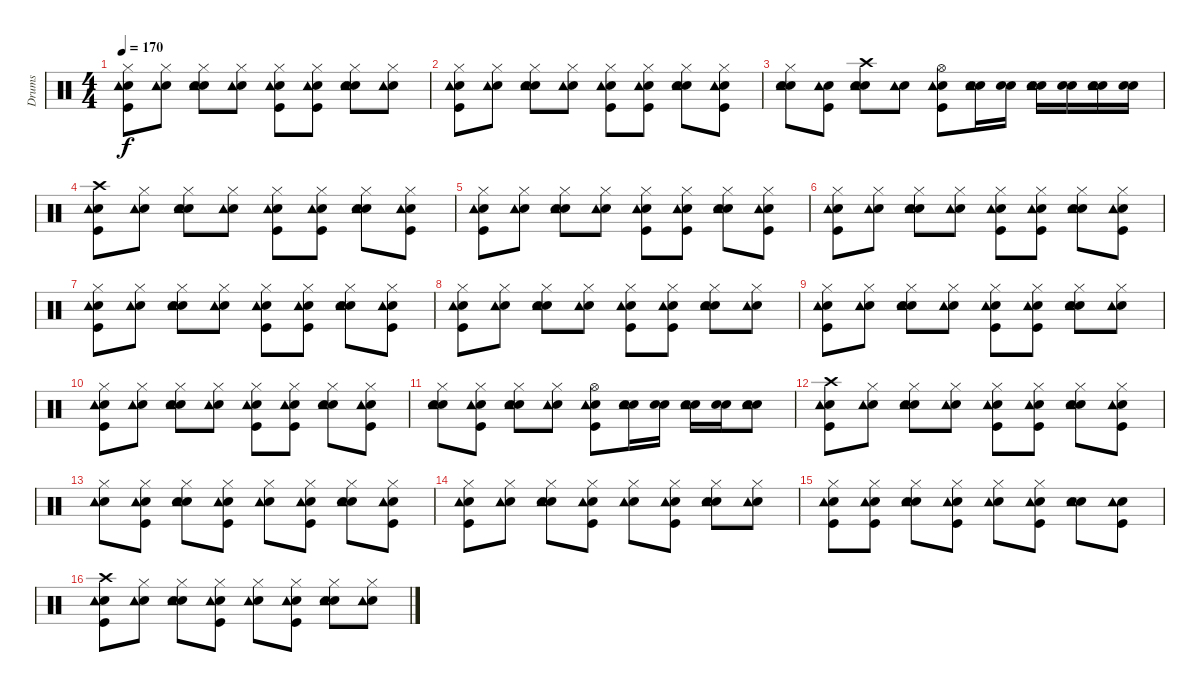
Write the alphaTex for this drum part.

\track ("Drums" "Drums") {instrument percussion}
\staff {score}
\articulation defaults
\ts (4 4)
\tempo 170
\clef neutral
\ks c
("Snare (hit)" "Kick (hit)" "Tambourine (hit)" "Hi-Hat (closed)").8{dy f} ("Snare (hit)" "Tambourine (hit)" "Hi-Hat (closed)").8 ("Snare (hit)" "Tambourine (hit)" "Electric Snare (hit)" "Hi-Hat (closed)").8 ("Snare (hit)" "Tambourine (hit)" "Hi-Hat (closed)").8 ("Snare (hit)" "Kick (hit)" "Tambourine (hit)" "Hi-Hat (closed)").8 ("Snare (hit)" "Kick (hit)" "Tambourine (hit)" "Hi-Hat (closed)").8 ("Snare (hit)" "Tambourine (hit)" "Electric Snare (hit)" "Hi-Hat (closed)").8 ("Snare (hit)" "Tambourine (hit)" "Hi-Hat (closed)").8 |
("Snare (hit)" "Kick (hit)" "Tambourine (hit)" "Hi-Hat (closed)").8 ("Snare (hit)" "Tambourine (hit)" "Hi-Hat (closed)").8 ("Snare (hit)" "Tambourine (hit)" "Electric Snare (hit)" "Hi-Hat (closed)").8 ("Snare (hit)" "Tambourine (hit)" "Hi-Hat (closed)").8 ("Snare (hit)" "Kick (hit)" "Tambourine (hit)" "Hi-Hat (closed)").8 ("Snare (hit)" "Kick (hit)" "Tambourine (hit)" "Hi-Hat (closed)").8 ("Snare (hit)" "Tambourine (hit)" "Electric Snare (hit)" "Hi-Hat (closed)").8 ("Snare (hit)" "Kick (hit)" "Tambourine (hit)" "Hi-Hat (closed)").8 |
("Snare (hit)" "Tambourine (hit)" "Electric Snare (hit)" "Hi-Hat (closed)").8 ("Snare (hit)" "Kick (hit)" "Tambourine (hit)").8 ("Snare (hit)" "Tambourine (hit)" "Electric Snare (hit)" "Crash high (hit)").8 ("Snare (hit)" "Tambourine (hit)").8 ("Snare (hit)" "Kick (hit)" "Tambourine (hit)" "Hi-Hat (open)").8 ("Snare (hit)" "Tambourine (hit)" "Electric Snare (hit)").16 ("Snare (hit)" "Electric Snare (hit)").16 ("Snare (hit)" "Tambourine (hit)" "Electric Snare (hit)").16 ("Snare (hit)" "Electric Snare (hit)").16 ("Snare (hit)" "Tambourine (hit)" "Electric Snare (hit)").16 ("Snare (hit)" "Electric Snare (hit)").16 |
("Snare (hit)" "Kick (hit)" "Tambourine (hit)" "Crash high (hit)").8 ("Snare (hit)" "Tambourine (hit)" "Hi-Hat (closed)").8 ("Snare (hit)" "Tambourine (hit)" "Electric Snare (hit)" "Hi-Hat (closed)").8 ("Snare (hit)" "Tambourine (hit)" "Hi-Hat (closed)").8 ("Snare (hit)" "Kick (hit)" "Tambourine (hit)" "Hi-Hat (closed)").8 ("Snare (hit)" "Kick (hit)" "Tambourine (hit)" "Hi-Hat (closed)").8 ("Snare (hit)" "Tambourine (hit)" "Electric Snare (hit)" "Hi-Hat (closed)").8 ("Snare (hit)" "Kick (hit)" "Tambourine (hit)" "Hi-Hat (closed)").8 |
("Snare (hit)" "Kick (hit)" "Tambourine (hit)" "Hi-Hat (closed)").8 ("Snare (hit)" "Tambourine (hit)" "Hi-Hat (closed)").8 ("Snare (hit)" "Tambourine (hit)" "Electric Snare (hit)" "Hi-Hat (closed)").8 ("Snare (hit)" "Tambourine (hit)" "Hi-Hat (closed)").8 ("Snare (hit)" "Kick (hit)" "Tambourine (hit)" "Hi-Hat (closed)").8 ("Snare (hit)" "Kick (hit)" "Tambourine (hit)" "Hi-Hat (closed)").8 ("Snare (hit)" "Tambourine (hit)" "Electric Snare (hit)" "Hi-Hat (closed)").8 ("Snare (hit)" "Kick (hit)" "Tambourine (hit)" "Hi-Hat (closed)").8 |
("Snare (hit)" "Kick (hit)" "Tambourine (hit)" "Hi-Hat (closed)").8 ("Snare (hit)" "Tambourine (hit)" "Hi-Hat (closed)").8 ("Snare (hit)" "Tambourine (hit)" "Electric Snare (hit)" "Hi-Hat (closed)").8 ("Snare (hit)" "Tambourine (hit)" "Hi-Hat (closed)").8 ("Snare (hit)" "Kick (hit)" "Tambourine (hit)" "Hi-Hat (closed)").8 ("Snare (hit)" "Kick (hit)" "Tambourine (hit)" "Hi-Hat (closed)").8 ("Snare (hit)" "Tambourine (hit)" "Electric Snare (hit)" "Hi-Hat (closed)").8 ("Snare (hit)" "Kick (hit)" "Tambourine (hit)" "Hi-Hat (closed)").8 |
("Snare (hit)" "Kick (hit)" "Tambourine (hit)" "Hi-Hat (closed)").8 ("Snare (hit)" "Tambourine (hit)" "Hi-Hat (closed)").8 ("Snare (hit)" "Tambourine (hit)" "Electric Snare (hit)" "Hi-Hat (closed)").8 ("Snare (hit)" "Tambourine (hit)" "Hi-Hat (closed)").8 ("Snare (hit)" "Kick (hit)" "Tambourine (hit)" "Hi-Hat (closed)").8 ("Snare (hit)" "Kick (hit)" "Tambourine (hit)" "Hi-Hat (closed)").8 ("Snare (hit)" "Tambourine (hit)" "Electric Snare (hit)" "Hi-Hat (closed)").8 ("Snare (hit)" "Kick (hit)" "Tambourine (hit)" "Hi-Hat (closed)").8 |
("Snare (hit)" "Kick (hit)" "Tambourine (hit)" "Hi-Hat (closed)").8 ("Snare (hit)" "Tambourine (hit)" "Hi-Hat (closed)").8 ("Snare (hit)" "Tambourine (hit)" "Electric Snare (hit)" "Hi-Hat (closed)").8 ("Snare (hit)" "Tambourine (hit)" "Hi-Hat (closed)").8 ("Snare (hit)" "Kick (hit)" "Tambourine (hit)" "Hi-Hat (closed)").8 ("Snare (hit)" "Kick (hit)" "Tambourine (hit)" "Hi-Hat (closed)").8 ("Snare (hit)" "Tambourine (hit)" "Electric Snare (hit)" "Hi-Hat (closed)").8 ("Snare (hit)" "Tambourine (hit)" "Hi-Hat (closed)").8 |
("Snare (hit)" "Kick (hit)" "Tambourine (hit)" "Hi-Hat (closed)").8 ("Snare (hit)" "Tambourine (hit)" "Hi-Hat (closed)").8 ("Snare (hit)" "Tambourine (hit)" "Electric Snare (hit)" "Hi-Hat (closed)").8 ("Snare (hit)" "Tambourine (hit)" "Hi-Hat (closed)").8 ("Snare (hit)" "Kick (hit)" "Tambourine (hit)" "Hi-Hat (closed)").8 ("Snare (hit)" "Kick (hit)" "Tambourine (hit)" "Hi-Hat (closed)").8 ("Snare (hit)" "Tambourine (hit)" "Electric Snare (hit)" "Hi-Hat (closed)").8 ("Snare (hit)" "Tambourine (hit)" "Hi-Hat (closed)").8 |
("Snare (hit)" "Kick (hit)" "Tambourine (hit)" "Hi-Hat (closed)").8 ("Snare (hit)" "Tambourine (hit)" "Hi-Hat (closed)").8 ("Snare (hit)" "Tambourine (hit)" "Electric Snare (hit)" "Hi-Hat (closed)").8 ("Snare (hit)" "Tambourine (hit)" "Hi-Hat (closed)").8 ("Snare (hit)" "Kick (hit)" "Tambourine (hit)" "Hi-Hat (closed)").8 ("Snare (hit)" "Kick (hit)" "Tambourine (hit)" "Hi-Hat (closed)").8 ("Snare (hit)" "Tambourine (hit)" "Electric Snare (hit)" "Hi-Hat (closed)").8 ("Snare (hit)" "Kick (hit)" "Tambourine (hit)" "Hi-Hat (closed)").8 |
("Snare (hit)" "Tambourine (hit)" "Electric Snare (hit)" "Hi-Hat (closed)").8 ("Snare (hit)" "Kick (hit)" "Tambourine (hit)" "Hi-Hat (closed)").8 ("Snare (hit)" "Electric Snare (hit)" "Hi-Hat (closed)" "Tambourine (hit)").8 ("Snare (hit)" "Hi-Hat (closed)" "Tambourine (hit)").8 ("Snare (hit)" "Hi-Hat (open)" "Kick (hit)" "Tambourine (hit)").8 ("Snare (hit)" "Tambourine (hit)" "Electric Snare (hit)").16 ("Snare (hit)" "Electric Snare (hit)").16 ("Snare (hit)" "Tambourine (hit)" "Electric Snare (hit)").16 ("Snare (hit)" "Electric Snare (hit)").16 ("Snare (hit)" "Tambourine (hit)" "Electric Snare (hit)").8 |
("Snare (hit)" "Kick (hit)" "Crash high (hit)" "Tambourine (hit)").8 ("Snare (hit)" "Hi-Hat (closed)" "Tambourine (hit)").8 ("Snare (hit)" "Electric Snare (hit)" "Hi-Hat (closed)" "Tambourine (hit)").8 ("Snare (hit)" "Hi-Hat (closed)" "Tambourine (hit)").8 ("Snare (hit)" "Kick (hit)" "Hi-Hat (closed)" "Tambourine (hit)").8 ("Snare (hit)" "Kick (hit)" "Hi-Hat (closed)" "Tambourine (hit)").8 ("Snare (hit)" "Electric Snare (hit)" "Hi-Hat (closed)" "Tambourine (hit)").8 ("Snare (hit)" "Kick (hit)" "Hi-Hat (closed)" "Tambourine (hit)").8 |
("Snare (hit)" "Hi-Hat (closed)" "Tambourine (hit)").8 ("Snare (hit)" "Kick (hit)" "Hi-Hat (closed)" "Tambourine (hit)").8 ("Snare (hit)" "Electric Snare (hit)" "Hi-Hat (closed)" "Tambourine (hit)").8 ("Snare (hit)" "Kick (hit)" "Hi-Hat (closed)" "Tambourine (hit)").8 ("Snare (hit)" "Hi-Hat (closed)" "Tambourine (hit)").8 ("Snare (hit)" "Kick (hit)" "Hi-Hat (closed)" "Tambourine (hit)").8 ("Snare (hit)" "Electric Snare (hit)" "Hi-Hat (closed)" "Tambourine (hit)").8 ("Snare (hit)" "Kick (hit)" "Hi-Hat (closed)" "Tambourine (hit)").8 |
("Snare (hit)" "Kick (hit)" "Hi-Hat (closed)" "Tambourine (hit)").8 ("Snare (hit)" "Hi-Hat (closed)" "Tambourine (hit)").8 ("Snare (hit)" "Electric Snare (hit)" "Hi-Hat (closed)" "Tambourine (hit)").8 ("Snare (hit)" "Kick (hit)" "Hi-Hat (closed)" "Tambourine (hit)").8 ("Snare (hit)" "Hi-Hat (closed)" "Tambourine (hit)").8 ("Snare (hit)" "Kick (hit)" "Hi-Hat (closed)" "Tambourine (hit)").8 ("Snare (hit)" "Electric Snare (hit)" "Hi-Hat (closed)" "Tambourine (hit)").8 ("Snare (hit)" "Hi-Hat (closed)" "Tambourine (hit)").8 |
("Snare (hit)" "Kick (hit)" "Hi-Hat (closed)" "Tambourine (hit)").8 ("Snare (hit)" "Kick (hit)" "Hi-Hat (closed)" "Tambourine (hit)").8 ("Snare (hit)" "Electric Snare (hit)" "Hi-Hat (closed)" "Tambourine (hit)").8 ("Snare (hit)" "Kick (hit)" "Hi-Hat (closed)" "Tambourine (hit)").8 ("Snare (hit)" "Hi-Hat (closed)" "Tambourine (hit)").8 ("Snare (hit)" "Kick (hit)" "Hi-Hat (closed)" "Tambourine (hit)").8 ("Snare (hit)" "Electric Snare (hit)" "Tambourine (hit)").8 ("Snare (hit)" "Kick (hit)" "Tambourine (hit)").8 |
("Snare (hit)" "Kick (hit)" "Crash high (hit)" "Tambourine (hit)").8 ("Snare (hit)" "Hi-Hat (closed)" "Tambourine (hit)").8 ("Snare (hit)" "Electric Snare (hit)" "Hi-Hat (closed)" "Tambourine (hit)").8 ("Snare (hit)" "Kick (hit)" "Hi-Hat (closed)" "Tambourine (hit)").8 ("Snare (hit)" "Hi-Hat (closed)" "Tambourine (hit)").8 ("Snare (hit)" "Kick (hit)" "Hi-Hat (closed)" "Tambourine (hit)").8 ("Snare (hit)" "Electric Snare (hit)" "Hi-Hat (closed)" "Tambourine (hit)").8 ("Snare (hit)" "Hi-Hat (closed)" "Tambourine (hit)").8
